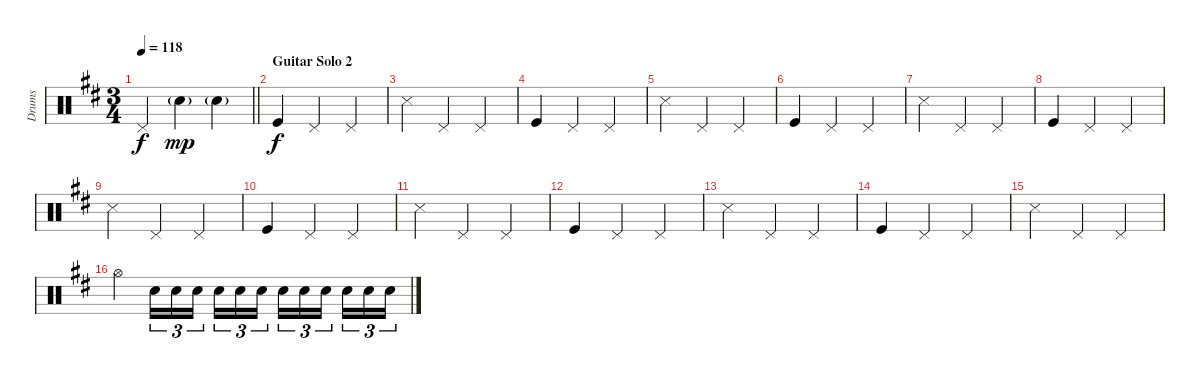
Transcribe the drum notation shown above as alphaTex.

\track ("Drums" "Drums") {instrument percussion}
\staff {score}
\articulation defaults
\ts (3 4)
\tempo 118
\clef neutral
\barLineRight lightlight
\ks d "Pedal Hi-Hat (hit)".4{dy f} "Snare (hit) 2"{g}.4{dy mp} "Snare (hit) 2"{g}.4
|
\section ("" "Guitar Solo 2")
"Kick (hit)".4{dy f} "Pedal Hi-Hat (hit)".4 "Pedal Hi-Hat (hit)".4 |
"Snare (side stick) 3".4 "Pedal Hi-Hat (hit)".4 "Pedal Hi-Hat (hit)".4 |
"Kick (hit)".4 "Pedal Hi-Hat (hit)".4 "Pedal Hi-Hat (hit)".4 |
"Snare (side stick) 3".4 "Pedal Hi-Hat (hit)".4 "Pedal Hi-Hat (hit)".4 |
"Kick (hit)".4 "Pedal Hi-Hat (hit)".4 "Pedal Hi-Hat (hit)".4 |
"Snare (side stick) 3".4 "Pedal Hi-Hat (hit)".4 "Pedal Hi-Hat (hit)".4 |
"Kick (hit)".4 "Pedal Hi-Hat (hit)".4 "Pedal Hi-Hat (hit)".4 |
"Snare (side stick) 3".4 "Pedal Hi-Hat (hit)".4 "Pedal Hi-Hat (hit)".4 |
"Kick (hit)".4 "Pedal Hi-Hat (hit)".4 "Pedal Hi-Hat (hit)".4 |
"Snare (side stick) 3".4 "Pedal Hi-Hat (hit)".4 "Pedal Hi-Hat (hit)".4 |
"Kick (hit)".4 "Pedal Hi-Hat (hit)".4 "Pedal Hi-Hat (hit)".4 |
"Snare (side stick) 3".4 "Pedal Hi-Hat (hit)".4 "Pedal Hi-Hat (hit)".4 |
"Kick (hit)".4 "Pedal Hi-Hat (hit)".4 "Pedal Hi-Hat (hit)".4 |
"Snare (side stick) 3".4 "Pedal Hi-Hat (hit)".4 "Pedal Hi-Hat (hit)".4 |
"Hi-Hat (open)".4 "Snare (hit) 2".16{tu (3 2)} "Snare (hit) 2".16{tu (3 2)} "Snare (hit) 2".16{tu (3 2) beam splitsecondary} "Snare (hit) 2".16{tu (3 2)} "Snare (hit) 2".16{tu (3 2)} "Snare (hit) 2".16{tu (3 2)} "Snare (hit) 2".16{tu (3 2)} "Snare (hit) 2".16{tu (3 2)} "Snare (hit) 2".16{tu (3 2) beam splitsecondary} "Snare (hit) 2".16{tu (3 2)} "Snare (hit) 2".16{tu (3 2)} "Snare (hit) 2".16{tu (3 2)}
